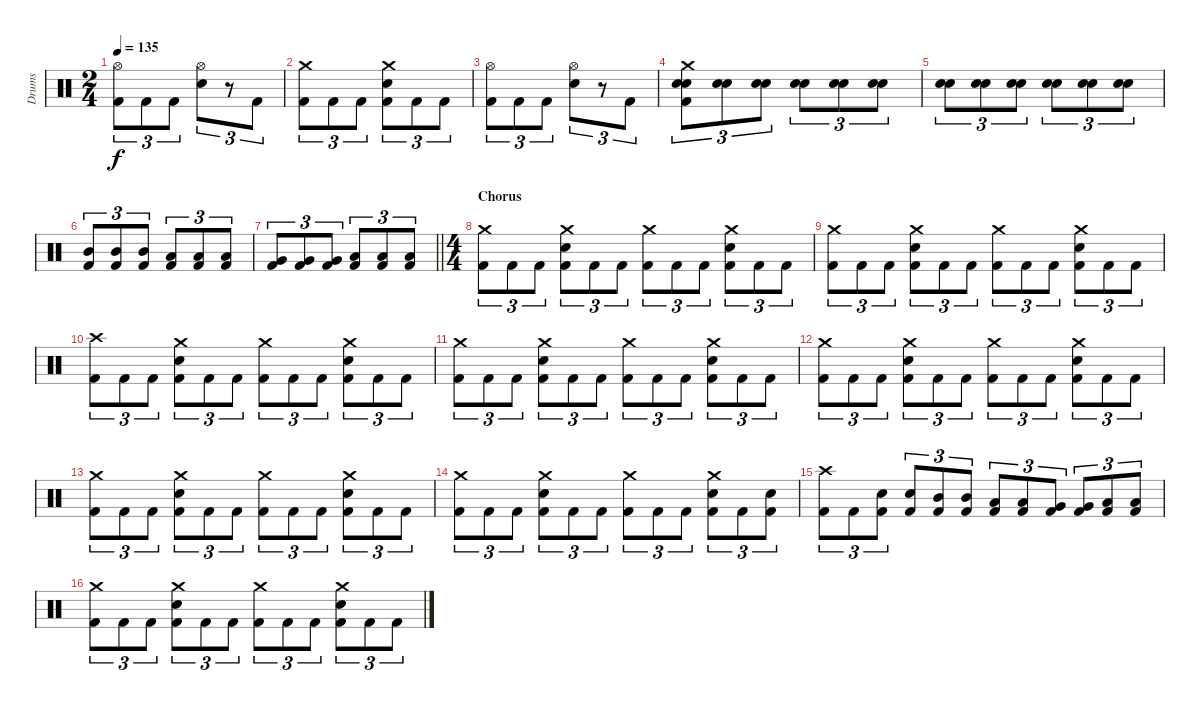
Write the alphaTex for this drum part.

\track ("Drums" "Drums") {instrument percussion}
\staff {score}
\articulation defaults
\ts (2 4)
\tempo 135
\clef neutral
\ks c
("Hi-Hat (open)" "Kick (hit) 2").8{tu (3 2) dy f} "Kick (hit) 2".8{tu (3 2)} "Kick (hit) 2".8{tu (3 2)} ("Hi-Hat (open)" "Electric Snare (hit)").8{tu (3 2)} r.8{tu (3 2)} "Kick (hit) 2".8{tu (3 2)} |
("Crash medium (hit)" "Kick (hit) 2").8{tu (3 2)} "Kick (hit) 2".8{tu (3 2)} "Kick (hit) 2".8{tu (3 2)} ("Crash medium (hit)" "Electric Snare (hit)" "Kick (hit) 2").8{tu (3 2)} "Kick (hit) 2".8{tu (3 2)} "Kick (hit) 2".8{tu (3 2)} |
("Hi-Hat (open)" "Kick (hit) 2").8{tu (3 2)} "Kick (hit) 2".8{tu (3 2)} "Kick (hit) 2".8{tu (3 2)} ("Hi-Hat (open)" "Electric Snare (hit)").8{tu (3 2)} r.8{tu (3 2)} "Kick (hit) 2".8{tu (3 2)} |
("Crash medium (hit)" "Electric Snare (hit)" "Electric Snare (hit)" "Kick (hit) 2").8{tu (3 2) volume 7} ("Electric Snare (hit)" "Electric Snare (hit)").8{tu (3 2) volume 14} ("Electric Snare (hit)" "Electric Snare (hit)").8{tu (3 2)} ("Electric Snare (hit)" "Electric Snare (hit)").8{tu (3 2)} ("Electric Snare (hit)" "Electric Snare (hit)").8{tu (3 2)} ("Electric Snare (hit)" "Electric Snare (hit)").8{tu (3 2)} |
("Electric Snare (hit)" "Electric Snare (hit)").8{tu (3 2)} ("Electric Snare (hit)" "Electric Snare (hit)").8{tu (3 2)} ("Electric Snare (hit)" "Electric Snare (hit)").8{tu (3 2)} ("Electric Snare (hit)" "Electric Snare (hit)").8{tu (3 2)} ("Electric Snare (hit)" "Electric Snare (hit)").8{tu (3 2)} ("Electric Snare (hit)" "Electric Snare (hit)").8{tu (3 2)} |
("Mid Tom (hit)" "Kick (hit) 2").8{tu (3 2)} ("Mid Tom (hit)" "Kick (hit) 2").8{tu (3 2)} ("Mid Tom (hit)" "Kick (hit) 2").8{tu (3 2)} ("Low Tom (hit)" "Kick (hit) 2").8{tu (3 2)} ("Low Tom (hit)" "Kick (hit) 2").8{tu (3 2)} ("Low Tom (hit)" "Kick (hit) 2").8{tu (3 2)} |
\barLineRight lightlight
("Very Low Tom (hit)" "Kick (hit) 2").8{tu (3 2)} ("Very Low Tom (hit)" "Kick (hit) 2").8{tu (3 2)} ("Very Low Tom (hit)" "Kick (hit) 2").8{tu (3 2)} ("Low Floor Tom (hit)" "Kick (hit) 2").8{tu (3 2)} ("Low Floor Tom (hit)" "Kick (hit) 2").8{tu (3 2)} ("Low Floor Tom (hit)" "Kick (hit) 2").8{tu (3 2)} |
\ts (4 4)
\section ("" "Chorus")
("Crash medium (hit)" "Kick (hit) 2").8{tu (3 2)} "Kick (hit) 2".8{tu (3 2)} "Kick (hit) 2".8{tu (3 2)} ("Crash medium (hit)" "Electric Snare (hit)" "Kick (hit) 2").8{tu (3 2)} "Kick (hit) 2".8{tu (3 2)} "Kick (hit) 2".8{tu (3 2)} ("Crash medium (hit)" "Kick (hit) 2").8{tu (3 2)} "Kick (hit) 2".8{tu (3 2)} "Kick (hit) 2".8{tu (3 2)} ("Crash medium (hit)" "Electric Snare (hit)" "Kick (hit) 2").8{tu (3 2)} "Kick (hit) 2".8{tu (3 2)} "Kick (hit) 2".8{tu (3 2)} |
("Crash medium (hit)" "Kick (hit) 2").8{tu (3 2)} "Kick (hit) 2".8{tu (3 2)} "Kick (hit) 2".8{tu (3 2)} ("Crash medium (hit)" "Electric Snare (hit)" "Kick (hit) 2").8{tu (3 2)} "Kick (hit) 2".8{tu (3 2)} "Kick (hit) 2".8{tu (3 2)} ("Crash medium (hit)" "Kick (hit) 2").8{tu (3 2)} "Kick (hit) 2".8{tu (3 2)} "Kick (hit) 2".8{tu (3 2)} ("Crash medium (hit)" "Electric Snare (hit)" "Kick (hit) 2").8{tu (3 2)} "Kick (hit) 2".8{tu (3 2)} "Kick (hit) 2".8{tu (3 2)} |
("Crash high (hit)" "Kick (hit) 2").8{tu (3 2)} "Kick (hit) 2".8{tu (3 2)} "Kick (hit) 2".8{tu (3 2)} ("Crash medium (hit)" "Electric Snare (hit)" "Kick (hit) 2").8{tu (3 2)} "Kick (hit) 2".8{tu (3 2)} "Kick (hit) 2".8{tu (3 2)} ("Crash medium (hit)" "Kick (hit) 2").8{tu (3 2)} "Kick (hit) 2".8{tu (3 2)} "Kick (hit) 2".8{tu (3 2)} ("Crash medium (hit)" "Electric Snare (hit)" "Kick (hit) 2").8{tu (3 2)} "Kick (hit) 2".8{tu (3 2)} "Kick (hit) 2".8{tu (3 2)} |
("Crash medium (hit)" "Kick (hit) 2").8{tu (3 2)} "Kick (hit) 2".8{tu (3 2)} "Kick (hit) 2".8{tu (3 2)} ("Crash medium (hit)" "Electric Snare (hit)" "Kick (hit) 2").8{tu (3 2)} "Kick (hit) 2".8{tu (3 2)} "Kick (hit) 2".8{tu (3 2)} ("Crash medium (hit)" "Kick (hit) 2").8{tu (3 2)} "Kick (hit) 2".8{tu (3 2)} "Kick (hit) 2".8{tu (3 2)} ("Crash medium (hit)" "Electric Snare (hit)" "Kick (hit) 2").8{tu (3 2)} "Kick (hit) 2".8{tu (3 2)} "Kick (hit) 2".8{tu (3 2)} |
("Crash medium (hit)" "Kick (hit) 2").8{tu (3 2)} "Kick (hit) 2".8{tu (3 2)} "Kick (hit) 2".8{tu (3 2)} ("Crash medium (hit)" "Electric Snare (hit)" "Kick (hit) 2").8{tu (3 2)} "Kick (hit) 2".8{tu (3 2)} "Kick (hit) 2".8{tu (3 2)} ("Crash medium (hit)" "Kick (hit) 2").8{tu (3 2)} "Kick (hit) 2".8{tu (3 2)} "Kick (hit) 2".8{tu (3 2)} ("Crash medium (hit)" "Electric Snare (hit)" "Kick (hit) 2").8{tu (3 2)} "Kick (hit) 2".8{tu (3 2)} "Kick (hit) 2".8{tu (3 2)} |
("Crash medium (hit)" "Kick (hit) 2").8{tu (3 2)} "Kick (hit) 2".8{tu (3 2)} "Kick (hit) 2".8{tu (3 2)} ("Crash medium (hit)" "Electric Snare (hit)" "Kick (hit) 2").8{tu (3 2)} "Kick (hit) 2".8{tu (3 2)} "Kick (hit) 2".8{tu (3 2)} ("Crash medium (hit)" "Kick (hit) 2").8{tu (3 2)} "Kick (hit) 2".8{tu (3 2)} "Kick (hit) 2".8{tu (3 2)} ("Crash medium (hit)" "Electric Snare (hit)" "Kick (hit) 2").8{tu (3 2)} "Kick (hit) 2".8{tu (3 2)} "Kick (hit) 2".8{tu (3 2)} |
("Crash medium (hit)" "Kick (hit) 2").8{tu (3 2)} "Kick (hit) 2".8{tu (3 2)} "Kick (hit) 2".8{tu (3 2)} ("Crash medium (hit)" "Electric Snare (hit)" "Kick (hit) 2").8{tu (3 2)} "Kick (hit) 2".8{tu (3 2)} "Kick (hit) 2".8{tu (3 2)} ("Crash medium (hit)" "Kick (hit) 2").8{tu (3 2)} "Kick (hit) 2".8{tu (3 2)} "Kick (hit) 2".8{tu (3 2)} ("Crash medium (hit)" "Electric Snare (hit)" "Kick (hit) 2").8{tu (3 2)} "Kick (hit) 2".8{tu (3 2)} ("Electric Snare (hit)" "Kick (hit) 2").8{tu (3 2)} |
("Crash high (hit)" "Kick (hit) 2").8{tu (3 2)} "Kick (hit) 2".8{tu (3 2)} ("Electric Snare (hit)" "Kick (hit) 2").8{tu (3 2)} ("Electric Snare (hit)" "Kick (hit) 2").8{tu (3 2)} ("Mid Tom (hit)" "Kick (hit) 2").8{tu (3 2)} ("Mid Tom (hit)" "Kick (hit) 2").8{tu (3 2)} ("Low Tom (hit)" "Kick (hit) 2").8{tu (3 2)} ("Low Tom (hit)" "Kick (hit) 2").8{tu (3 2)} ("Very Low Tom (hit)" "Kick (hit) 2").8{tu (3 2)} ("Very Low Tom (hit)" "Kick (hit) 2").8{tu (3 2)} ("Low Floor Tom (hit)" "Kick (hit) 2").8{tu (3 2)} ("Low Floor Tom (hit)" "Kick (hit) 2").8{tu (3 2)} |
("Crash medium (hit)" "Kick (hit) 2").8{tu (3 2)} "Kick (hit) 2".8{tu (3 2)} "Kick (hit) 2".8{tu (3 2)} ("Crash medium (hit)" "Electric Snare (hit)" "Kick (hit) 2").8{tu (3 2)} "Kick (hit) 2".8{tu (3 2)} "Kick (hit) 2".8{tu (3 2)} ("Crash medium (hit)" "Kick (hit) 2").8{tu (3 2)} "Kick (hit) 2".8{tu (3 2)} "Kick (hit) 2".8{tu (3 2)} ("Crash medium (hit)" "Electric Snare (hit)" "Kick (hit) 2").8{tu (3 2)} "Kick (hit) 2".8{tu (3 2)} "Kick (hit) 2".8{tu (3 2)}
